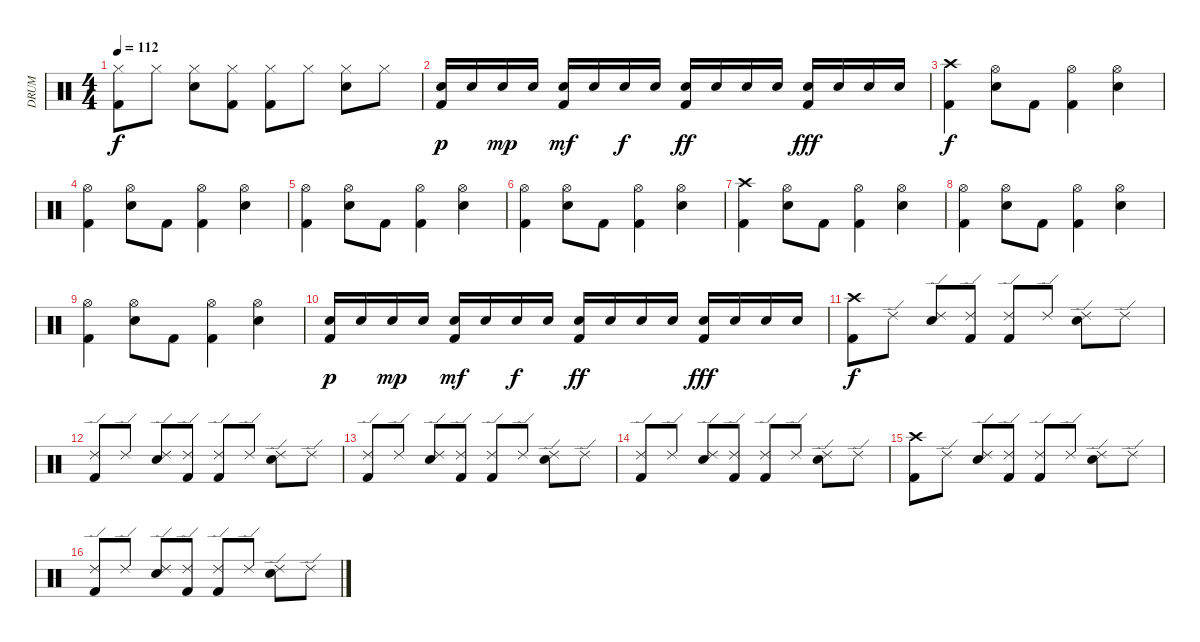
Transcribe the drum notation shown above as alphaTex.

\track ("DRUM" "DRUM") {instrument percussion}
\staff {score}
\articulation defaults
\ts (4 4)
\tempo 112
\clef neutral
\ks c
("Hi-Hat (closed)" "Kick (hit) 2").8{dy f} "Hi-Hat (closed)".8 ("Snare (hit) 2" "Hi-Hat (closed)").8 ("Hi-Hat (closed)" "Kick (hit) 2").8 ("Hi-Hat (closed)" "Kick (hit) 2").8 "Hi-Hat (closed)".8 ("Snare (hit) 2" "Hi-Hat (closed)").8 "Hi-Hat (closed)".8 |
("Snare (hit) 2" "Kick (hit) 2").16{dy p} "Snare (hit) 2".16 "Snare (hit) 2".16{dy mp} "Snare (hit) 2".16 ("Snare (hit) 2" "Kick (hit) 2").16{dy mf} "Snare (hit) 2".16 "Snare (hit) 2".16{dy f} "Snare (hit) 2".16 ("Snare (hit) 2" "Kick (hit) 2").16{dy ff} "Snare (hit) 2".16 "Snare (hit) 2".16 "Snare (hit) 2".16 ("Snare (hit) 2" "Kick (hit) 2").16{dy fff} "Snare (hit) 2".16 "Snare (hit) 2".16 "Snare (hit) 2".16 |
("Crash high (hit)" "Kick (hit) 2").4{dy f} ("Snare (hit) 2" "Hi-Hat (open)").8 "Kick (hit) 2".8 ("Hi-Hat (open)" "Kick (hit) 2").4 ("Snare (hit) 2" "Hi-Hat (open)").4 |
("Hi-Hat (open)" "Kick (hit) 2").4 ("Snare (hit) 2" "Hi-Hat (open)").8 "Kick (hit) 2".8 ("Hi-Hat (open)" "Kick (hit) 2").4 ("Snare (hit) 2" "Hi-Hat (open)").4 |
("Hi-Hat (open)" "Kick (hit) 2").4 ("Snare (hit) 2" "Hi-Hat (open)").8 "Kick (hit) 2".8 ("Hi-Hat (open)" "Kick (hit) 2").4 ("Snare (hit) 2" "Hi-Hat (open)").4 |
("Hi-Hat (open)" "Kick (hit) 2").4 ("Snare (hit) 2" "Hi-Hat (open)").8 "Kick (hit) 2".8 ("Hi-Hat (open)" "Kick (hit) 2").4 ("Snare (hit) 2" "Hi-Hat (open)").4 |
("Crash high (hit)" "Kick (hit) 2").4 ("Snare (hit) 2" "Hi-Hat (open)").8 "Kick (hit) 2".8 ("Hi-Hat (open)" "Kick (hit) 2").4 ("Snare (hit) 2" "Hi-Hat (open)").4 |
("Hi-Hat (open)" "Kick (hit) 2").4 ("Snare (hit) 2" "Hi-Hat (open)").8 "Kick (hit) 2".8 ("Hi-Hat (open)" "Kick (hit) 2").4 ("Snare (hit) 2" "Hi-Hat (open)").4 |
("Hi-Hat (open)" "Kick (hit) 2").4 ("Snare (hit) 2" "Hi-Hat (open)").8 "Kick (hit) 2".8 ("Hi-Hat (open)" "Kick (hit) 2").4 ("Snare (hit) 2" "Hi-Hat (open)").4 |
("Snare (hit) 2" "Kick (hit) 2").16{dy p} "Snare (hit) 2".16 "Snare (hit) 2".16{dy mp} "Snare (hit) 2".16 ("Snare (hit) 2" "Kick (hit) 2").16{dy mf} "Snare (hit) 2".16 "Snare (hit) 2".16{dy f} "Snare (hit) 2".16 ("Snare (hit) 2" "Kick (hit) 2").16{dy ff} "Snare (hit) 2".16 "Snare (hit) 2".16 "Snare (hit) 2".16 ("Snare (hit) 2" "Kick (hit) 2").16{dy fff} "Snare (hit) 2".16 "Snare (hit) 2".16 "Snare (hit) 2".16 |
("Crash high (hit)" "Kick (hit) 2").8{dy f} "Ride (edge) 2".8 ("Ride (edge) 2" "Snare (hit) 2").8 ("Ride (edge) 2" "Kick (hit) 2").8 ("Ride (edge) 2" "Kick (hit) 2").8 "Ride (edge) 2".8 ("Ride (edge) 2" "Snare (hit) 2").8 "Ride (edge) 2".8 |
("Ride (edge) 2" "Kick (hit) 2").8 "Ride (edge) 2".8 ("Ride (edge) 2" "Snare (hit) 2").8 ("Ride (edge) 2" "Kick (hit) 2").8 ("Ride (edge) 2" "Kick (hit) 2").8 "Ride (edge) 2".8 ("Ride (edge) 2" "Snare (hit) 2").8 "Ride (edge) 2".8 |
("Ride (edge) 2" "Kick (hit) 2").8 "Ride (edge) 2".8 ("Ride (edge) 2" "Snare (hit) 2").8 ("Ride (edge) 2" "Kick (hit) 2").8 ("Ride (edge) 2" "Kick (hit) 2").8 "Ride (edge) 2".8 ("Ride (edge) 2" "Snare (hit) 2").8 "Ride (edge) 2".8 |
("Ride (edge) 2" "Kick (hit) 2").8 "Ride (edge) 2".8 ("Ride (edge) 2" "Snare (hit) 2").8 ("Ride (edge) 2" "Kick (hit) 2").8 ("Ride (edge) 2" "Kick (hit) 2").8 "Ride (edge) 2".8 ("Ride (edge) 2" "Snare (hit) 2").8 "Ride (edge) 2".8 |
("Crash high (hit)" "Kick (hit) 2").8 "Ride (edge) 2".8 ("Ride (edge) 2" "Snare (hit) 2").8 ("Ride (edge) 2" "Kick (hit) 2").8 ("Ride (edge) 2" "Kick (hit) 2").8 "Ride (edge) 2".8 ("Ride (edge) 2" "Snare (hit) 2").8 "Ride (edge) 2".8 |
("Ride (edge) 2" "Kick (hit) 2").8 "Ride (edge) 2".8 ("Ride (edge) 2" "Snare (hit) 2").8 ("Ride (edge) 2" "Kick (hit) 2").8 ("Ride (edge) 2" "Kick (hit) 2").8 "Ride (edge) 2".8 ("Ride (edge) 2" "Snare (hit) 2").8 "Ride (edge) 2".8
